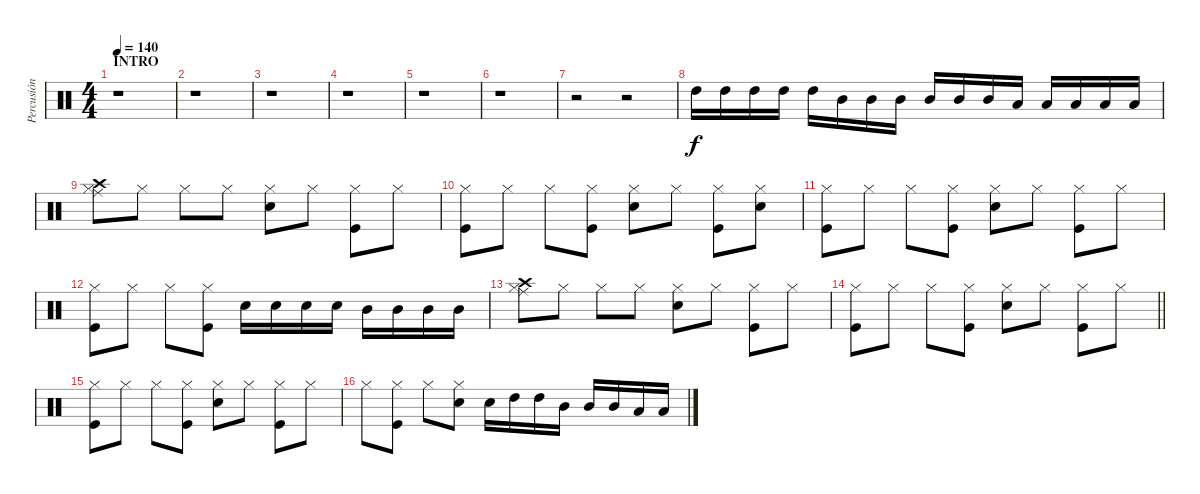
\track ("Percusión" "Percusión") {instrument percussion}
\staff {score}
\articulation defaults
\ts (4 4)
\section ("" "INTRO")
\tempo 140
\clef neutral
\ks c
r.1{dy f} |
r.1 |
r.1 |
r.1 |
r.1 |
r.1 |
r.2 r.2 |
"High Tom (hit)".16 "High Tom (hit)".16 "High Tom (hit)".16 "High Tom (hit)".16 "High Tom (hit)".16 "Mid Tom (hit)".16 "Mid Tom (hit)".16 "Mid Tom (hit)".16 "Mid Tom (hit)".16 "Mid Tom (hit)".16 "Mid Tom (hit)".16 "Low Tom (hit)".16 "Low Tom (hit)".16 "Low Tom (hit)".16 "Low Tom (hit)".16 "Low Tom (hit)".16 |
("Crash high (hit)" "Hi-Hat (closed)" "Ride (middle)").8 "Hi-Hat (closed)".8 "Hi-Hat (closed)".8 "Hi-Hat (closed)".8 ("Hi-Hat (closed)" "Snare (hit) 2").8 "Hi-Hat (closed)".8 ("Hi-Hat (closed)" "Kick (hit)").8 "Hi-Hat (closed)".8 |
("Hi-Hat (closed)" "Kick (hit)").8 "Hi-Hat (closed)".8 "Hi-Hat (closed)".8 ("Hi-Hat (closed)" "Kick (hit)").8 ("Hi-Hat (closed)" "Snare (hit) 2").8 "Hi-Hat (closed)".8 ("Hi-Hat (closed)" "Kick (hit)").8 ("Hi-Hat (closed)" "Snare (hit)").8 |
("Hi-Hat (closed)" "Kick (hit)").8 "Hi-Hat (closed)".8 "Hi-Hat (closed)".8 ("Hi-Hat (closed)" "Kick (hit)").8 ("Hi-Hat (closed)" "Snare (hit) 2").8 "Hi-Hat (closed)".8 ("Hi-Hat (closed)" "Kick (hit)").8 "Hi-Hat (closed)".8 |
("Hi-Hat (closed)" "Kick (hit)").8 "Hi-Hat (closed)".8 "Hi-Hat (closed)".8 ("Hi-Hat (closed)" "Kick (hit)").8 "Snare (hit) 2".16 "Snare (hit) 2".16 "Snare (hit) 2".16 "Snare (hit) 2".16 "Mid Tom (hit)".16 "Mid Tom (hit)".16 "Mid Tom (hit)".16 "Mid Tom (hit)".16 |
("Crash high (hit)" "Hi-Hat (closed)" "Ride (middle)").8 "Hi-Hat (closed)".8 "Hi-Hat (closed)".8 "Hi-Hat (closed)".8 ("Hi-Hat (closed)" "Snare (hit) 2").8 "Hi-Hat (closed)".8 ("Hi-Hat (closed)" "Kick (hit)").8 "Hi-Hat (closed)".8 |
\barLineRight lightlight
("Hi-Hat (closed)" "Kick (hit)").8 "Hi-Hat (closed)".8 "Hi-Hat (closed)".8 ("Hi-Hat (closed)" "Kick (hit)").8 ("Hi-Hat (closed)" "Snare (hit) 2").8 "Hi-Hat (closed)".8 ("Hi-Hat (closed)" "Kick (hit)").8 "Hi-Hat (closed)".8 |
("Hi-Hat (closed)" "Kick (hit)").8 "Hi-Hat (closed)".8 "Hi-Hat (closed)".8 ("Hi-Hat (closed)" "Kick (hit)").8 ("Hi-Hat (closed)" "Snare (hit) 2").8 "Hi-Hat (closed)".8 ("Hi-Hat (closed)" "Kick (hit)").8 "Hi-Hat (closed)".8 |
"Hi-Hat (closed)".8 ("Hi-Hat (closed)" "Kick (hit)").8 "Hi-Hat (closed)".8 ("Hi-Hat (closed)" "Snare (hit) 2").8 "Snare (hit) 2".16 "High Tom (hit)".16 "High Tom (hit)".16 "Mid Tom (hit)".16 "Mid Tom (hit)".16 "Mid Tom (hit)".16 "Low Tom (hit)".16 "Low Tom (hit)".16
